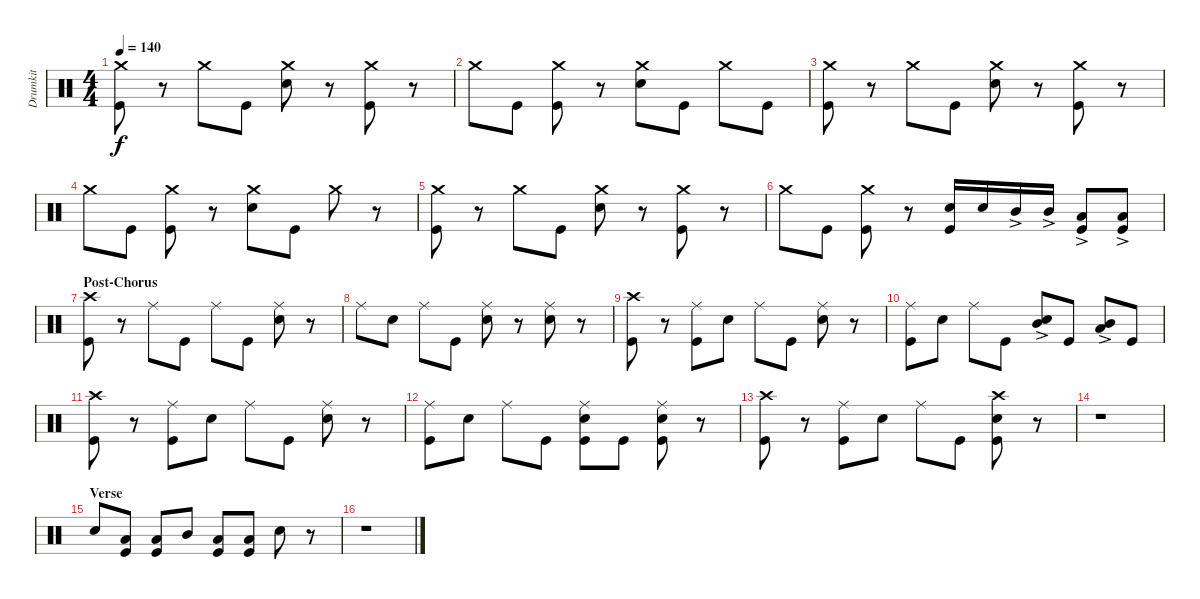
\track ("Drumkit" "Drumkit") {instrument percussion}
\staff {score}
\articulation defaults
\ts (4 4)
\tempo 140
\clef neutral
\ks c
("Kick (hit)" "Crash medium (hit)").8{dy f} r.8 "Crash medium (hit)".8 "Kick (hit)".8 ("Snare (hit) 2" "Crash medium (hit)").8 r.8 ("Kick (hit)" "Crash medium (hit)").8 r.8 |
"Crash medium (hit)".8 "Kick (hit)".8 ("Kick (hit)" "Crash medium (hit)").8 r.8 ("Snare (hit) 2" "Crash medium (hit)").8 "Kick (hit)".8 "Crash medium (hit)".8 "Kick (hit)".8 |
("Kick (hit)" "Crash medium (hit)").8 r.8 "Crash medium (hit)".8 "Kick (hit)".8 ("Snare (hit) 2" "Crash medium (hit)").8 r.8 ("Kick (hit)" "Crash medium (hit)").8 r.8 |
"Crash medium (hit)".8 "Kick (hit)".8 ("Kick (hit)" "Crash medium (hit)").8 r.8 ("Snare (hit) 2" "Crash medium (hit)").8 "Kick (hit)".8 "Crash medium (hit)".8 r.8 |
("Kick (hit)" "Crash medium (hit)").8 r.8 "Crash medium (hit)".8 "Kick (hit)".8 ("Snare (hit) 2" "Crash medium (hit)").8 r.8 ("Kick (hit)" "Crash medium (hit)").8 r.8 |
"Crash medium (hit)".8 "Kick (hit)".8 ("Kick (hit)" "Crash medium (hit)").8 r.8 ("Snare (hit) 2" "Kick (hit)").16 "Snare (hit) 2".16 "Mid Tom (hit)"{ac}.16 "Mid Tom (hit)"{ac}.16 ("Kick (hit)" "Low Tom (hit)"{ac}).8 ("Kick (hit)" "Low Tom (hit)"{ac}).8 |
\section ("" "Post-Chorus")
("Kick (hit)" "Crash high (hit)").8 r.8 "Ride (middle)".8 "Kick (hit)".8 "Ride (middle)".8 "Kick (hit)".8 ("Snare (hit) 2" "Ride (middle)").8 r.8 |
"Ride (middle)".8 "Snare (hit) 2".8 "Ride (middle)".8 "Kick (hit)".8 ("Snare (hit) 2" "Ride (middle)").8 r.8 ("Snare (hit) 2" "Ride (middle)").8 r.8 |
("Kick (hit)" "Crash high (hit)").8 r.8 ("Kick (hit)" "Ride (middle)").8 "Snare (hit) 2".8 "Ride (middle)".8 "Kick (hit)".8 ("Snare (hit) 2" "Ride (middle)").8 r.8 |
("Ride (middle)" "Kick (hit)").8 "Snare (hit) 2".8 "Ride (middle)".8 "Kick (hit)".8 ("Snare (hit) 2"{ac} "Mid Tom (hit)"{ac}).8 "Kick (hit)".8 ("Mid Tom (hit)"{ac} "Low Tom (hit)"{ac}).8 "Kick (hit)".8 |
("Kick (hit)" "Crash high (hit)").8 r.8 ("Kick (hit)" "Ride (middle)").8 "Snare (hit) 2".8 "Ride (middle)".8 "Kick (hit)".8 ("Snare (hit) 2" "Ride (middle)").8 r.8 |
("Kick (hit)" "Ride (middle)").8 "Snare (hit) 2".8 "Ride (middle)".8 "Kick (hit)".8 ("Snare (hit) 2" "Ride (middle)" "Kick (hit)").8 "Kick (hit)".8 ("Snare (hit) 2" "Ride (middle)" "Kick (hit)").8 r.8 |
("Kick (hit)" "Crash high (hit)").8 r.8 ("Kick (hit)" "Ride (middle)").8 "Snare (hit) 2".8 "Ride (middle)".8 "Kick (hit)".8 ("Kick (hit)" "Crash high (hit)" "Snare (hit) 2").8 r.8 |
r.1 |
\section ("" "Verse")
"Snare (hit) 2".8 ("Kick (hit)" "Low Tom (hit)").8 ("Kick (hit)" "Low Tom (hit)").8 "Mid Tom (hit)".8 ("Kick (hit)" "Low Tom (hit)").8 ("Kick (hit)" "Low Tom (hit)").8 "Snare (hit) 2".8 r.8 |
r.1
